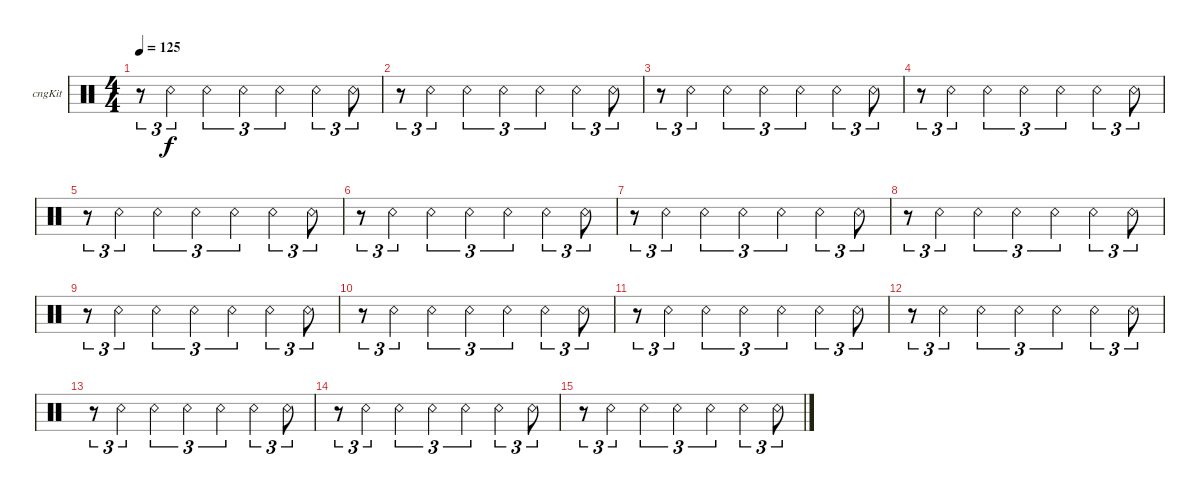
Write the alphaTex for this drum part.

\defaultSystemsLayout 4
\bracketExtendMode groupsimilarinstruments
\firstSystemTrackNameOrientation horizontal
\otherSystemsTrackNameOrientation horizontal
\track ("Congas" "cngKit") {instrument percussion}
\staff {score}
\articulation defaults
\ts (4 4)
\tempo 125
\clef neutral
\scale
0.333333
\ks c
r.8{tu (3 2) dy f} "Snare (rim shot)".4{tu (3 2)} "Snare (rim shot)".4{tu (3 2)} "Snare (rim shot)".4{tu (3 2)} "Snare (rim shot)".4{tu (3 2)} "Snare (rim shot)".4{tu (3 2)} "Snare (rim shot)".8{tu (3 2)} |
\scale
0.333333 r.8{tu (3 2)} "Snare (rim shot)".4{tu (3 2)} "Snare (rim shot)".4{tu (3 2)} "Snare (rim shot)".4{tu (3 2)} "Snare (rim shot)".4{tu (3 2)} "Snare (rim shot)".4{tu (3 2)} "Snare (rim shot)".8{tu (3 2)} |
\scale
0.333333 r.8{tu (3 2)} "Snare (rim shot)".4{tu (3 2)} "Snare (rim shot)".4{tu (3 2)} "Snare (rim shot)".4{tu (3 2)} "Snare (rim shot)".4{tu (3 2)} "Snare (rim shot)".4{tu (3 2)} "Snare (rim shot)".8{tu (3 2)} |
\scale
0.333333 r.8{tu (3 2)} "Snare (rim shot)".4{tu (3 2)} "Snare (rim shot)".4{tu (3 2)} "Snare (rim shot)".4{tu (3 2)} "Snare (rim shot)".4{tu (3 2)} "Snare (rim shot)".4{tu (3 2)} "Snare (rim shot)".8{tu (3 2)} |
\scale
0.333333 r.8{tu (3 2)} "Snare (rim shot)".4{tu (3 2)} "Snare (rim shot)".4{tu (3 2)} "Snare (rim shot)".4{tu (3 2)} "Snare (rim shot)".4{tu (3 2)} "Snare (rim shot)".4{tu (3 2)} "Snare (rim shot)".8{tu (3 2)} |
\scale
0.333333 r.8{tu (3 2)} "Snare (rim shot)".4{tu (3 2)} "Snare (rim shot)".4{tu (3 2)} "Snare (rim shot)".4{tu (3 2)} "Snare (rim shot)".4{tu (3 2)} "Snare (rim shot)".4{tu (3 2)} "Snare (rim shot)".8{tu (3 2)} |
\scale
0.333333 r.8{tu (3 2)} "Snare (rim shot)".4{tu (3 2)} "Snare (rim shot)".4{tu (3 2)} "Snare (rim shot)".4{tu (3 2)} "Snare (rim shot)".4{tu (3 2)} "Snare (rim shot)".4{tu (3 2)} "Snare (rim shot)".8{tu (3 2)} |
\scale
0.333333 r.8{tu (3 2)} "Snare (rim shot)".4{tu (3 2)} "Snare (rim shot)".4{tu (3 2)} "Snare (rim shot)".4{tu (3 2)} "Snare (rim shot)".4{tu (3 2)} "Snare (rim shot)".4{tu (3 2)} "Snare (rim shot)".8{tu (3 2)} |
\scale
0.333333 r.8{tu (3 2)} "Snare (rim shot)".4{tu (3 2)} "Snare (rim shot)".4{tu (3 2)} "Snare (rim shot)".4{tu (3 2)} "Snare (rim shot)".4{tu (3 2)} "Snare (rim shot)".4{tu (3 2)} "Snare (rim shot)".8{tu (3 2)} |
\scale
0.333333 r.8{tu (3 2)} "Snare (rim shot)".4{tu (3 2)} "Snare (rim shot)".4{tu (3 2)} "Snare (rim shot)".4{tu (3 2)} "Snare (rim shot)".4{tu (3 2)} "Snare (rim shot)".4{tu (3 2)} "Snare (rim shot)".8{tu (3 2)} |
\scale
0.333333 r.8{tu (3 2)} "Snare (rim shot)".4{tu (3 2)} "Snare (rim shot)".4{tu (3 2)} "Snare (rim shot)".4{tu (3 2)} "Snare (rim shot)".4{tu (3 2)} "Snare (rim shot)".4{tu (3 2)} "Snare (rim shot)".8{tu (3 2)} |
\scale
0.333333 r.8{tu (3 2)} "Snare (rim shot)".4{tu (3 2)} "Snare (rim shot)".4{tu (3 2)} "Snare (rim shot)".4{tu (3 2)} "Snare (rim shot)".4{tu (3 2)} "Snare (rim shot)".4{tu (3 2)} "Snare (rim shot)".8{tu (3 2)} |
\scale
0.333333 r.8{tu (3 2)} "Snare (rim shot)".4{tu (3 2)} "Snare (rim shot)".4{tu (3 2)} "Snare (rim shot)".4{tu (3 2)} "Snare (rim shot)".4{tu (3 2)} "Snare (rim shot)".4{tu (3 2)} "Snare (rim shot)".8{tu (3 2)} |
\scale
0.333333 r.8{tu (3 2)} "Snare (rim shot)".4{tu (3 2)} "Snare (rim shot)".4{tu (3 2)} "Snare (rim shot)".4{tu (3 2)} "Snare (rim shot)".4{tu (3 2)} "Snare (rim shot)".4{tu (3 2)} "Snare (rim shot)".8{tu (3 2)} |
\scale
0.333333 r.8{tu (3 2)} "Snare (rim shot)".4{tu (3 2)} "Snare (rim shot)".4{tu (3 2)} "Snare (rim shot)".4{tu (3 2)} "Snare (rim shot)".4{tu (3 2)} "Snare (rim shot)".4{tu (3 2)} "Snare (rim shot)".8{tu (3 2)} |
\scale
0.333333
